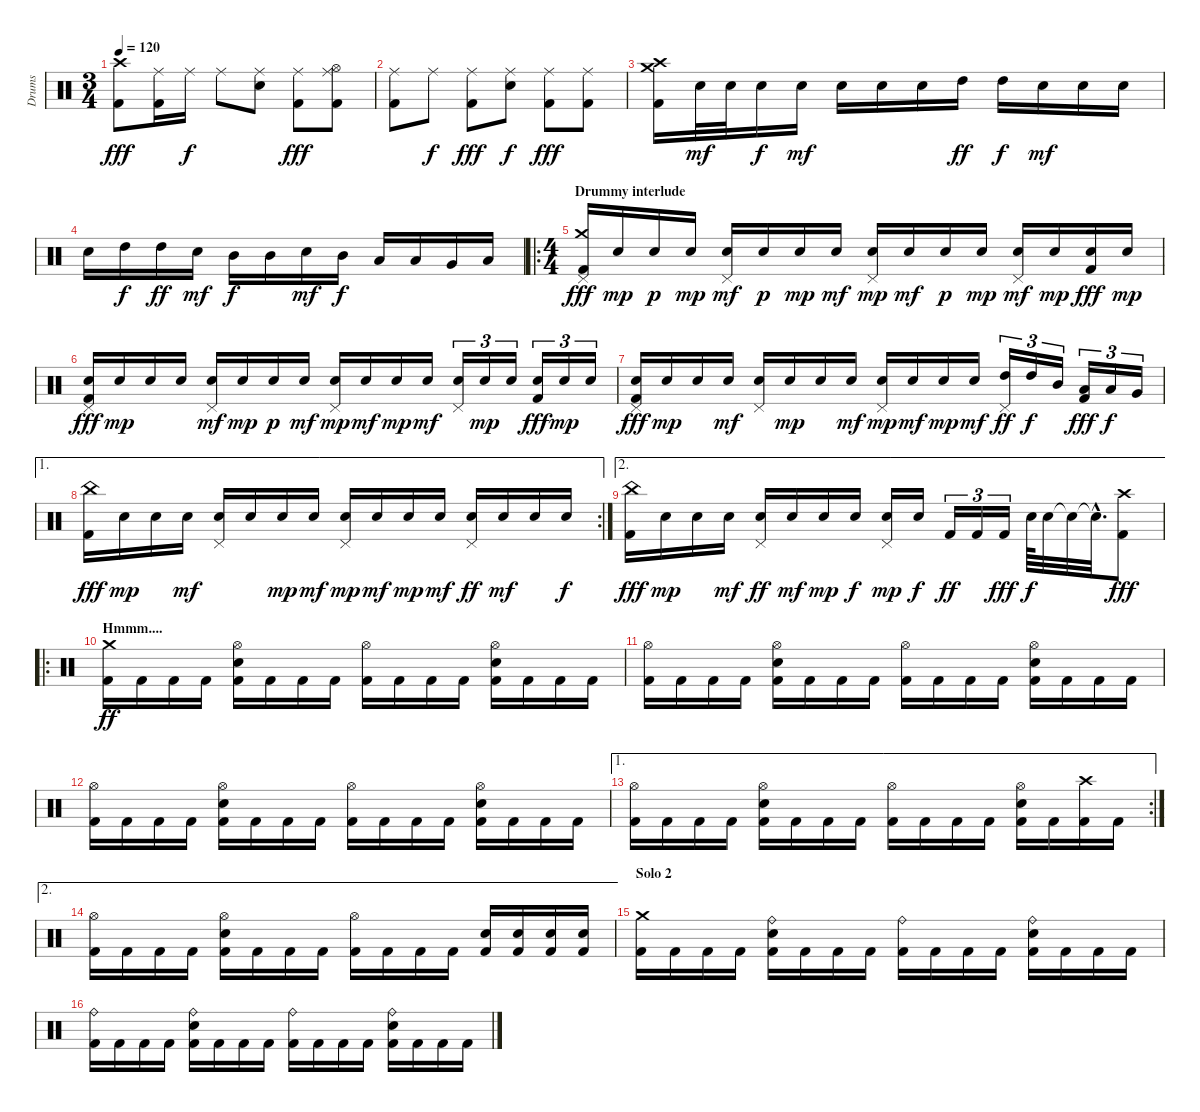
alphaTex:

\track ("Drums" "Drums") {instrument percussion}
\staff {score}
\articulation defaults
\ts (3 4)
\tempo 120
\clef neutral
\ks c
("Crash high (hit)" "Kick (hit) 2").8{dy fff} ("Ride (middle)" "Kick (hit) 2").16 "Ride (middle)".16{dy f} "Ride (middle)".8 ("Ride (middle)" "Electric Snare (hit)").8 ("Ride (middle)" "Kick (hit) 2").8{dy fff} ("Ride (middle)" "Hi-Hat (open)" "Kick (hit) 2").8 |
("Ride (middle)" "Kick (hit) 2").8 "Ride (middle)".8{dy f} ("Ride (middle)" "Kick (hit) 2").8{dy fff} ("Ride (middle)" "Electric Snare (hit)").8{dy f} ("Ride (middle)" "Kick (hit) 2").8{dy fff} ("Ride (middle)" "Kick (hit) 2").8 |
("Crash medium (hit)" "Crash high (hit)" "Kick (hit) 2").16 "Electric Snare (hit)".32{dy mf} "Electric Snare (hit)".32 "Electric Snare (hit)".16{dy f} "Electric Snare (hit)".16{dy mf} "Electric Snare (hit)".16 "Electric Snare (hit)".16 "Electric Snare (hit)".16 "High Tom (hit)".16{dy ff} "High Tom (hit)".16{dy f} "Electric Snare (hit)".16{dy mf} "Electric Snare (hit)".16 "Electric Snare (hit)".16 |
"Electric Snare (hit)".16 "High Tom (hit)".16{dy f} "High Tom (hit)".16{dy ff} "Electric Snare (hit)".16{dy mf} "Mid Tom (hit)".16{dy f} "Mid Tom (hit)".16 "Electric Snare (hit)".16{dy mf} "Mid Tom (hit)".16{dy f} "Low Tom (hit)".16 "Low Tom (hit)".16 "Very Low Tom (hit)".16 "Low Floor Tom (hit)".16 |
\ro
\ts (4 4)
\section ("" "Drummy interlude")
("Crash medium (hit)" "Pedal Hi-Hat (hit)" "Kick (hit) 2").16{dy fff} "Electric Snare (hit)".16{dy mp} "Electric Snare (hit)".16{dy p} "Electric Snare (hit)".16{dy mp} ("Pedal Hi-Hat (hit)" "Electric Snare (hit)").16{dy mf} "Electric Snare (hit)".16{dy p} "Electric Snare (hit)".16{dy mp} "Electric Snare (hit)".16{dy mf} ("Pedal Hi-Hat (hit)" "Electric Snare (hit)").16{dy mp} "Electric Snare (hit)".16{dy mf} "Electric Snare (hit)".16{dy p} "Electric Snare (hit)".16{dy mp} ("Pedal Hi-Hat (hit)" "Electric Snare (hit)").16{dy mf} "Electric Snare (hit)".16{dy mp} ("Electric Snare (hit)" "Kick (hit) 2").16{dy fff} "Electric Snare (hit)".16{dy mp} |
("Pedal Hi-Hat (hit)" "Electric Snare (hit)" "Kick (hit) 2").16{dy fff} "Electric Snare (hit)".16{dy mp} "Electric Snare (hit)".16 "Electric Snare (hit)".16 ("Pedal Hi-Hat (hit)" "Electric Snare (hit)").16{dy mf} "Electric Snare (hit)".16{dy mp} "Electric Snare (hit)".16{dy p} "Electric Snare (hit)".16{dy mf} ("Pedal Hi-Hat (hit)" "Electric Snare (hit)").16{dy mp} "Electric Snare (hit)".16{dy mf} "Electric Snare (hit)".16{dy mp} "Electric Snare (hit)".16{dy mf} ("Pedal Hi-Hat (hit)" "Electric Snare (hit)").16{tu (3 2)} "Electric Snare (hit)".16{tu (3 2) dy mp} "Electric Snare (hit)".16{tu (3 2)} ("Electric Snare (hit)" "Kick (hit) 2").16{tu (3 2) dy fff} "Electric Snare (hit)".16{tu (3 2) dy mp} "Electric Snare (hit)".16{tu (3 2)} |
("Pedal Hi-Hat (hit)" "Electric Snare (hit)" "Kick (hit) 2").16{dy fff} "Electric Snare (hit)".16{dy mp} "Electric Snare (hit)".16 "Electric Snare (hit)".16{dy mf} ("Pedal Hi-Hat (hit)" "Electric Snare (hit)").16 "Electric Snare (hit)".16{dy mp} "Electric Snare (hit)".16 "Electric Snare (hit)".16{dy mf} ("Pedal Hi-Hat (hit)" "Electric Snare (hit)").16{dy mp} "Electric Snare (hit)".16{dy mf} "Electric Snare (hit)".16{dy mp} "Electric Snare (hit)".16{dy mf} ("Pedal Hi-Hat (hit)" "High Tom (hit)").16{tu (3 2) dy ff} "High Tom (hit)".16{tu (3 2) dy f} "Mid Tom (hit)".16{tu (3 2)} ("Low Tom (hit)" "Kick (hit) 2").16{tu (3 2) dy fff} "Low Tom (hit)".16{tu (3 2) dy f} "Very Low Tom (hit)".16{tu (3 2)} |
\ae 1
\rc 2
("China (hit)" "Kick (hit) 2").16{dy fff} "Electric Snare (hit)".16{dy mp} "Electric Snare (hit)".16 "Electric Snare (hit)".16{dy mf} ("Pedal Hi-Hat (hit)" "Electric Snare (hit)").16 "Electric Snare (hit)".16 "Electric Snare (hit)".16{dy mp} "Electric Snare (hit)".16{dy mf} ("Pedal Hi-Hat (hit)" "Electric Snare (hit)").16{dy mp} "Electric Snare (hit)".16{dy mf} "Electric Snare (hit)".16{dy mp} "Electric Snare (hit)".16{dy mf} ("Pedal Hi-Hat (hit)" "Electric Snare (hit)").16{dy ff} "Electric Snare (hit)".16{dy mf} "Electric Snare (hit)".16 "Electric Snare (hit)".16{dy f} |
\ae 2
("China (hit)" "Kick (hit) 2").16{dy fff} "Electric Snare (hit)".16{dy mp} "Electric Snare (hit)".16 "Electric Snare (hit)".16{dy mf} ("Pedal Hi-Hat (hit)" "Electric Snare (hit)").16{dy ff} "Electric Snare (hit)".16{dy mf} "Electric Snare (hit)".16{dy mp} "Electric Snare (hit)".16{dy f} ("Pedal Hi-Hat (hit)" "Electric Snare (hit)").16{dy mp} "Electric Snare (hit)".16{dy f} "Kick (hit) 2".16{tu (3 2) dy ff} "Kick (hit) 2".16{tu (3 2)} "Kick (hit) 2".16{tu (3 2) dy fff} "Electric Snare (hit)".64{dy f} "Electric Snare (hit)".32 "Snare (hit)"{t}.32 "Snare (hit)"{hac t}.32{d} ("Crash high (hit)" "Kick (hit) 2").8{dy fff} |
\ro
\section ("" "Hmmm....")
("Crash medium (hit)" "Kick (hit) 2").16{dy ff} "Kick (hit) 2".16 "Kick (hit) 2".16 "Kick (hit) 2".16 ("Hi-Hat (open)" "Electric Snare (hit)" "Kick (hit) 2").16 "Kick (hit) 2".16 "Kick (hit) 2".16 "Kick (hit) 2".16 ("Hi-Hat (open)" "Kick (hit) 2").16 "Kick (hit) 2".16 "Kick (hit) 2".16 "Kick (hit) 2".16 ("Hi-Hat (open)" "Electric Snare (hit)" "Kick (hit) 2").16 "Kick (hit) 2".16 "Kick (hit) 2".16 "Kick (hit) 2".16 |
("Hi-Hat (open)" "Kick (hit) 2").16 "Kick (hit) 2".16 "Kick (hit) 2".16 "Kick (hit) 2".16 ("Hi-Hat (open)" "Electric Snare (hit)" "Kick (hit) 2").16 "Kick (hit) 2".16 "Kick (hit) 2".16 "Kick (hit) 2".16 ("Hi-Hat (open)" "Kick (hit) 2").16 "Kick (hit) 2".16 "Kick (hit) 2".16 "Kick (hit) 2".16 ("Hi-Hat (open)" "Electric Snare (hit)" "Kick (hit) 2").16 "Kick (hit) 2".16 "Kick (hit) 2".16 "Kick (hit) 2".16 |
("Hi-Hat (open)" "Kick (hit) 2").16 "Kick (hit) 2".16 "Kick (hit) 2".16 "Kick (hit) 2".16 ("Hi-Hat (open)" "Electric Snare (hit)" "Kick (hit) 2").16 "Kick (hit) 2".16 "Kick (hit) 2".16 "Kick (hit) 2".16 ("Hi-Hat (open)" "Kick (hit) 2").16 "Kick (hit) 2".16 "Kick (hit) 2".16 "Kick (hit) 2".16 ("Hi-Hat (open)" "Electric Snare (hit)" "Kick (hit) 2").16 "Kick (hit) 2".16 "Kick (hit) 2".16 "Kick (hit) 2".16 |
\ae 1
\rc 2
("Hi-Hat (open)" "Kick (hit) 2").16 "Kick (hit) 2".16 "Kick (hit) 2".16 "Kick (hit) 2".16 ("Hi-Hat (open)" "Electric Snare (hit)" "Kick (hit) 2").16 "Kick (hit) 2".16 "Kick (hit) 2".16 "Kick (hit) 2".16 ("Hi-Hat (open)" "Kick (hit) 2").16 "Kick (hit) 2".16 "Kick (hit) 2".16 "Kick (hit) 2".16 ("Hi-Hat (open)" "Electric Snare (hit)" "Kick (hit) 2").16 "Kick (hit) 2".16 ("Crash high (hit)" "Kick (hit) 2").16 "Kick (hit) 2".16 |
\ae 2
("Hi-Hat (open)" "Kick (hit) 2").16 "Kick (hit) 2".16 "Kick (hit) 2".16 "Kick (hit) 2".16 ("Hi-Hat (open)" "Electric Snare (hit)" "Kick (hit) 2").16 "Kick (hit) 2".16 "Kick (hit) 2".16 "Kick (hit) 2".16 ("Hi-Hat (open)" "Kick (hit) 2").16 "Kick (hit) 2".16 "Kick (hit) 2".16 "Kick (hit) 2".16 ("Electric Snare (hit)" "Kick (hit) 2").16 ("Electric Snare (hit)" "Kick (hit) 2").16 ("Electric Snare (hit)" "Kick (hit) 2").16 ("Electric Snare (hit)" "Kick (hit) 2").16 |
\section ("" "Solo 2")
("Crash medium (hit)" "Kick (hit) 2").16 "Kick (hit) 2".16 "Kick (hit) 2".16 "Kick (hit) 2".16 ("Ride (bell)" "Electric Snare (hit)" "Kick (hit) 2").16 "Kick (hit) 2".16 "Kick (hit) 2".16 "Kick (hit) 2".16 ("Ride (bell)" "Kick (hit) 2").16 "Kick (hit) 2".16 "Kick (hit) 2".16 "Kick (hit) 2".16 ("Ride (bell)" "Electric Snare (hit)" "Kick (hit) 2").16 "Kick (hit) 2".16 "Kick (hit) 2".16 "Kick (hit) 2".16 |
("Ride (bell)" "Kick (hit) 2").16 "Kick (hit) 2".16 "Kick (hit) 2".16 "Kick (hit) 2".16 ("Ride (bell)" "Electric Snare (hit)" "Kick (hit) 2").16 "Kick (hit) 2".16 "Kick (hit) 2".16 "Kick (hit) 2".16 ("Ride (bell)" "Kick (hit) 2").16 "Kick (hit) 2".16 "Kick (hit) 2".16 "Kick (hit) 2".16 ("Ride (bell)" "Electric Snare (hit)" "Kick (hit) 2").16 "Kick (hit) 2".16 "Kick (hit) 2".16 "Kick (hit) 2".16
